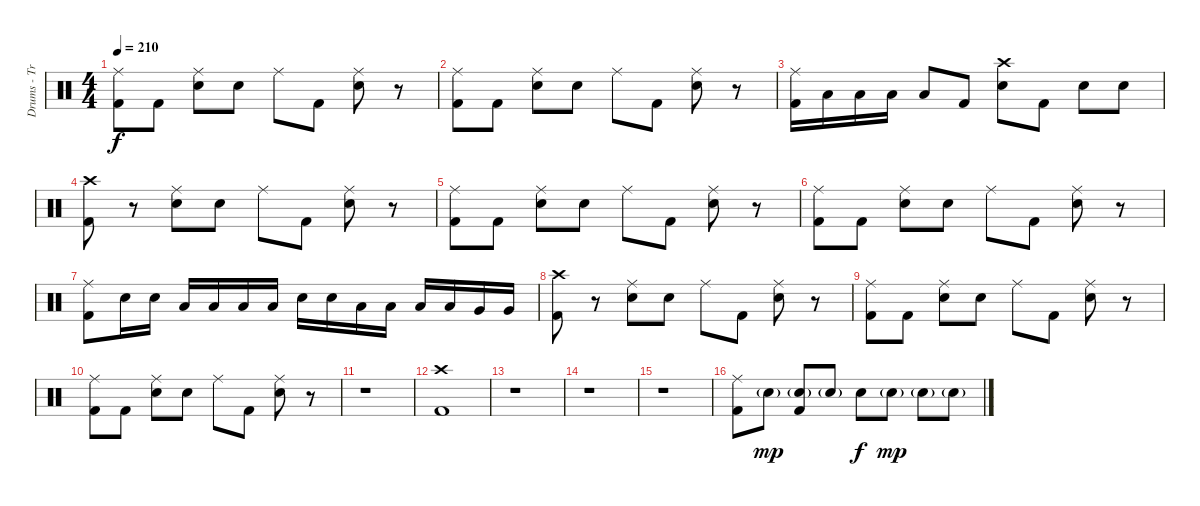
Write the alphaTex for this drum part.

\track ("Drums - Travis Barker" "Drums - Tr") {instrument percussion}
\staff {score}
\articulation defaults
\ts (4 4)
\tempo 210
\clef neutral
\ks c
("Ride (middle)" "Kick (hit) 2").8{dy f} "Kick (hit) 2".8 ("Ride (middle)" "Electric Snare (hit)").8 "Electric Snare (hit)".8 "Ride (middle)".8 "Kick (hit) 2".8 ("Ride (middle)" "Electric Snare (hit)").8 r.8 |
("Ride (middle)" "Kick (hit) 2").8 "Kick (hit) 2".8 ("Ride (middle)" "Electric Snare (hit)").8 "Electric Snare (hit)".8 "Ride (middle)".8 "Kick (hit) 2".8 ("Ride (middle)" "Electric Snare (hit)").8 r.8 |
("Ride (middle)" "Kick (hit) 2").16 "Low Tom (hit)".16 "Low Tom (hit)".16 "Low Tom (hit)".16 "Low Tom (hit)".8 "Kick (hit) 2".8 ("Crash high (hit)" "Electric Snare (hit)").8 "Kick (hit) 2".8 "Electric Snare (hit)".8 "Electric Snare (hit)".8 |
("Crash high (hit)" "Kick (hit) 2").8 r.8 ("Ride (middle)" "Electric Snare (hit)").8 "Electric Snare (hit)".8 "Ride (middle)".8 "Kick (hit) 2".8 ("Ride (middle)" "Electric Snare (hit)").8 r.8 |
("Ride (middle)" "Kick (hit) 2").8 "Kick (hit) 2".8 ("Ride (middle)" "Electric Snare (hit)").8 "Electric Snare (hit)".8 "Ride (middle)".8 "Kick (hit) 2".8 ("Ride (middle)" "Electric Snare (hit)").8 r.8 |
("Ride (middle)" "Kick (hit) 2").8 "Kick (hit) 2".8 ("Ride (middle)" "Electric Snare (hit)").8 "Electric Snare (hit)".8 "Ride (middle)".8 "Kick (hit) 2".8 ("Ride (middle)" "Electric Snare (hit)").8 r.8 |
("Ride (middle)" "Kick (hit) 2").8 "Electric Snare (hit)".16 "Electric Snare (hit)".16 "Low Tom (hit)".16 "Low Tom (hit)".16 "Low Tom (hit)".16 "Low Tom (hit)".16 "Electric Snare (hit)".16 "Electric Snare (hit)".16 "Low Tom (hit)".16 "Low Tom (hit)".16 "Low Tom (hit)".16 "Low Tom (hit)".16 "Very Low Tom (hit)".16 "Very Low Tom (hit)".16 |
("Crash high (hit)" "Kick (hit) 2").8 r.8 ("Ride (middle)" "Electric Snare (hit)").8 "Electric Snare (hit)".8 "Ride (middle)".8 "Kick (hit) 2".8 ("Ride (middle)" "Electric Snare (hit)").8 r.8 |
("Ride (middle)" "Kick (hit) 2").8 "Kick (hit) 2".8 ("Ride (middle)" "Electric Snare (hit)").8 "Electric Snare (hit)".8 "Ride (middle)".8 "Kick (hit) 2".8 ("Ride (middle)" "Electric Snare (hit)").8 r.8 |
("Ride (middle)" "Kick (hit) 2").8 "Kick (hit) 2".8 ("Ride (middle)" "Electric Snare (hit)").8 "Electric Snare (hit)".8 "Ride (middle)".8 "Kick (hit) 2".8 ("Ride (middle)" "Electric Snare (hit)").8 r.8 |
r.1 |
("Crash high (hit)" "Kick (hit) 2").1 |
r.1 |
r.1 |
r.1 |
("Ride (middle)" "Kick (hit) 2").8 "Electric Snare (hit)"{g}.8{dy mp volume 11} ("Electric Snare (hit)"{g} "Kick (hit) 2").8 "Electric Snare (hit)"{g}.8 "Electric Snare (hit)".8{dy f} "Electric Snare (hit)"{g}.8{dy mp} "Electric Snare (hit)"{g}.8 "Electric Snare (hit)"{g}.8
